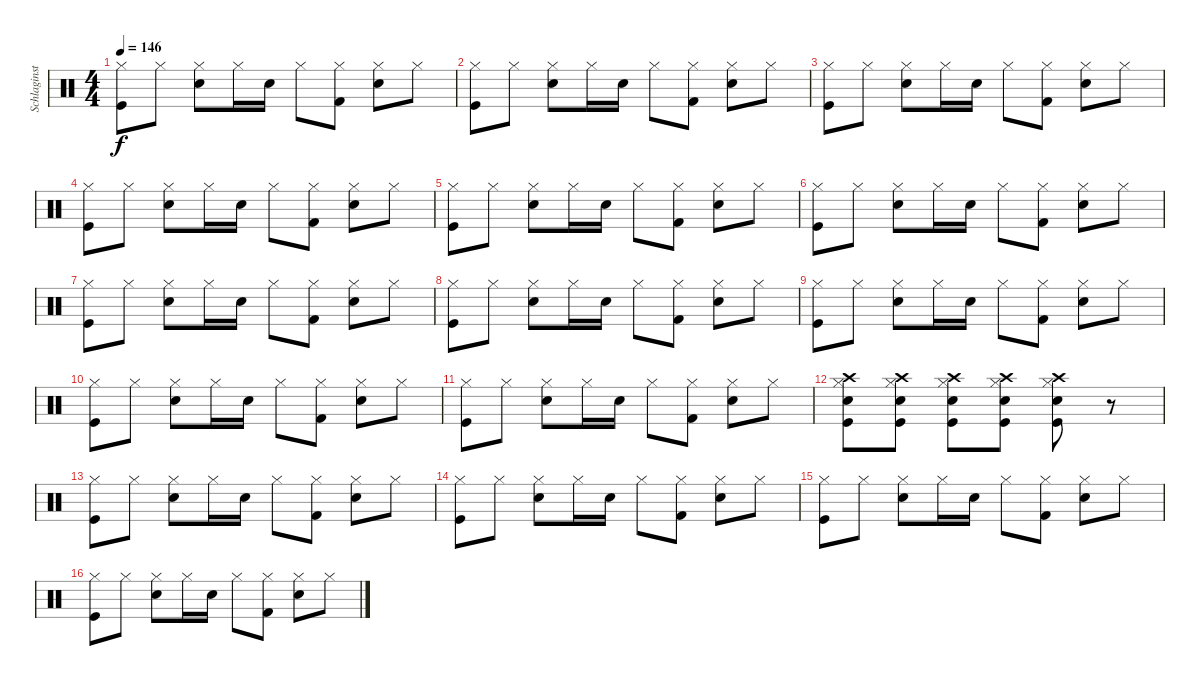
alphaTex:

\track ("Schlaginstrumente - Auswahl" "Schlaginst") {instrument percussion}
\staff {score}
\articulation defaults
\ts (4 4)
\tempo 146
\clef neutral
\ks c
("Hi-Hat (closed)" "Kick (hit)").8{dy f} "Hi-Hat (closed)".8 ("Hi-Hat (closed)" "Snare (hit) 2").8 "Hi-Hat (closed)".16 "Snare (hit) 2".16 "Hi-Hat (closed)".8 ("Hi-Hat (closed)" "Kick (hit) 2").8 ("Hi-Hat (closed)" "Snare (hit) 2").8 "Hi-Hat (closed)".8 |
("Hi-Hat (closed)" "Kick (hit)").8 "Hi-Hat (closed)".8 ("Hi-Hat (closed)" "Snare (hit) 2").8 "Hi-Hat (closed)".16 "Snare (hit) 2".16 "Hi-Hat (closed)".8 ("Hi-Hat (closed)" "Kick (hit) 2").8 ("Hi-Hat (closed)" "Snare (hit) 2").8 "Hi-Hat (closed)".8 |
("Hi-Hat (closed)" "Kick (hit)").8 "Hi-Hat (closed)".8 ("Hi-Hat (closed)" "Snare (hit) 2").8 "Hi-Hat (closed)".16 "Snare (hit) 2".16 "Hi-Hat (closed)".8 ("Hi-Hat (closed)" "Kick (hit) 2").8 ("Hi-Hat (closed)" "Snare (hit) 2").8 "Hi-Hat (closed)".8 |
("Hi-Hat (closed)" "Kick (hit)").8 "Hi-Hat (closed)".8 ("Hi-Hat (closed)" "Snare (hit) 2").8 "Hi-Hat (closed)".16 "Snare (hit) 2".16 "Hi-Hat (closed)".8 ("Hi-Hat (closed)" "Kick (hit) 2").8 ("Hi-Hat (closed)" "Snare (hit) 2").8 "Hi-Hat (closed)".8 |
("Hi-Hat (closed)" "Kick (hit)").8 "Hi-Hat (closed)".8 ("Hi-Hat (closed)" "Snare (hit) 2").8 "Hi-Hat (closed)".16 "Snare (hit) 2".16 "Hi-Hat (closed)".8 ("Hi-Hat (closed)" "Kick (hit) 2").8 ("Hi-Hat (closed)" "Snare (hit) 2").8 "Hi-Hat (closed)".8 |
("Hi-Hat (closed)" "Kick (hit)").8 "Hi-Hat (closed)".8 ("Hi-Hat (closed)" "Snare (hit) 2").8 "Hi-Hat (closed)".16 "Snare (hit) 2".16 "Hi-Hat (closed)".8 ("Hi-Hat (closed)" "Kick (hit) 2").8 ("Hi-Hat (closed)" "Snare (hit) 2").8 "Hi-Hat (closed)".8 |
("Hi-Hat (closed)" "Kick (hit)").8 "Hi-Hat (closed)".8 ("Hi-Hat (closed)" "Snare (hit) 2").8 "Hi-Hat (closed)".16 "Snare (hit) 2".16 "Hi-Hat (closed)".8 ("Hi-Hat (closed)" "Kick (hit) 2").8 ("Hi-Hat (closed)" "Snare (hit) 2").8 "Hi-Hat (closed)".8 |
("Hi-Hat (closed)" "Kick (hit)").8 "Hi-Hat (closed)".8 ("Hi-Hat (closed)" "Snare (hit) 2").8 "Hi-Hat (closed)".16 "Snare (hit) 2".16 "Hi-Hat (closed)".8 ("Hi-Hat (closed)" "Kick (hit) 2").8 ("Hi-Hat (closed)" "Snare (hit) 2").8 "Hi-Hat (closed)".8 |
("Hi-Hat (closed)" "Kick (hit)").8 "Hi-Hat (closed)".8 ("Hi-Hat (closed)" "Snare (hit) 2").8 "Hi-Hat (closed)".16 "Snare (hit) 2".16 "Hi-Hat (closed)".8 ("Hi-Hat (closed)" "Kick (hit) 2").8 ("Hi-Hat (closed)" "Snare (hit) 2").8 "Hi-Hat (closed)".8 |
("Hi-Hat (closed)" "Kick (hit)").8 "Hi-Hat (closed)".8 ("Hi-Hat (closed)" "Snare (hit) 2").8 "Hi-Hat (closed)".16 "Snare (hit) 2".16 "Hi-Hat (closed)".8 ("Hi-Hat (closed)" "Kick (hit) 2").8 ("Hi-Hat (closed)" "Snare (hit) 2").8 "Hi-Hat (closed)".8 |
("Hi-Hat (closed)" "Kick (hit)").8 "Hi-Hat (closed)".8 ("Hi-Hat (closed)" "Snare (hit) 2").8 "Hi-Hat (closed)".16 "Snare (hit) 2".16 "Hi-Hat (closed)".8 ("Hi-Hat (closed)" "Kick (hit) 2").8 ("Hi-Hat (closed)" "Snare (hit) 2").8 "Hi-Hat (closed)".8 |
("Crash high (hit)" "Hi-Hat (closed)" "Snare (hit) 2" "Kick (hit)").8 ("Crash high (hit)" "Hi-Hat (closed)" "Snare (hit) 2" "Kick (hit)").8 ("Crash high (hit)" "Hi-Hat (closed)" "Snare (hit) 2" "Kick (hit)").8 ("Crash high (hit)" "Hi-Hat (closed)" "Snare (hit) 2" "Kick (hit)").8 ("Crash high (hit)" "Hi-Hat (closed)" "Snare (hit) 2" "Kick (hit)").8 r.8 |
("Hi-Hat (closed)" "Kick (hit)").8 "Hi-Hat (closed)".8 ("Hi-Hat (closed)" "Snare (hit) 2").8 "Hi-Hat (closed)".16 "Snare (hit) 2".16 "Hi-Hat (closed)".8 ("Hi-Hat (closed)" "Kick (hit) 2").8 ("Hi-Hat (closed)" "Snare (hit) 2").8 "Hi-Hat (closed)".8 |
("Hi-Hat (closed)" "Kick (hit)").8 "Hi-Hat (closed)".8 ("Hi-Hat (closed)" "Snare (hit) 2").8 "Hi-Hat (closed)".16 "Snare (hit) 2".16 "Hi-Hat (closed)".8 ("Hi-Hat (closed)" "Kick (hit) 2").8 ("Hi-Hat (closed)" "Snare (hit) 2").8 "Hi-Hat (closed)".8 |
("Hi-Hat (closed)" "Kick (hit)").8 "Hi-Hat (closed)".8 ("Hi-Hat (closed)" "Snare (hit) 2").8 "Hi-Hat (closed)".16 "Snare (hit) 2".16 "Hi-Hat (closed)".8 ("Hi-Hat (closed)" "Kick (hit) 2").8 ("Hi-Hat (closed)" "Snare (hit) 2").8 "Hi-Hat (closed)".8 |
("Hi-Hat (closed)" "Kick (hit)").8 "Hi-Hat (closed)".8 ("Hi-Hat (closed)" "Snare (hit) 2").8 "Hi-Hat (closed)".16 "Snare (hit) 2".16 "Hi-Hat (closed)".8 ("Hi-Hat (closed)" "Kick (hit) 2").8 ("Hi-Hat (closed)" "Snare (hit) 2").8 "Hi-Hat (closed)".8
